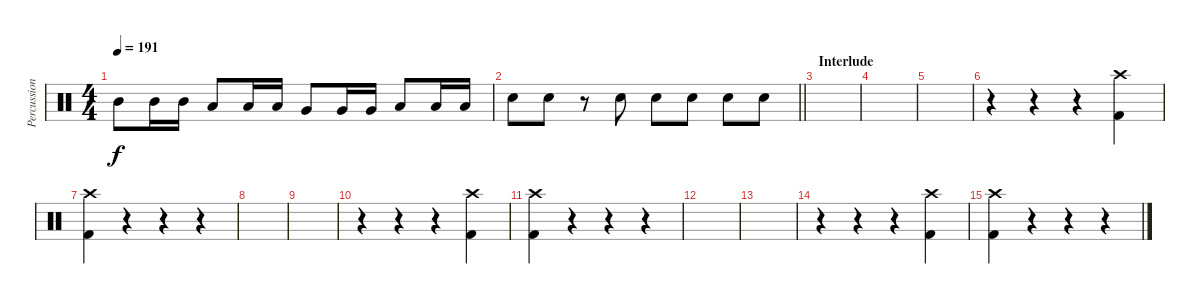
\track ("Percussion" "Percussion") {instrument percussion}
\staff {score}
\articulation defaults
\ts (4 4)
\tempo 191
\clef neutral
\ks c "Mid Tom (hit)".8{dy f} "Mid Tom (hit)".16 "Mid Tom (hit)".16 "Low Tom (hit)".8 "Low Tom (hit)".16 "Low Tom (hit)".16 "Very Low Tom (hit)".8 "Very Low Tom (hit)".16 "Very Low Tom (hit)".16 "Low Floor Tom (hit)".8 "Low Floor Tom (hit)".16 "Low Floor Tom (hit)".16
|
\barLineRight lightlight "Snare (hit) 2".8 "Snare (hit) 2".8
r.8 "Snare (hit) 2".8 "Snare (hit) 2".8 "Snare (hit) 2".8 "Snare (hit) 2".8 "Snare (hit) 2".8 |
\section ("" "Interlude")
|
|
|
r.4 r.4 r.4 ("Crash high (hit)" "Kick (hit) 2").4 |
("Crash high (hit)" "Kick (hit) 2").4 r.4 r.4 r.4 |
|
|
r.4 r.4 r.4 ("Crash high (hit)" "Kick (hit) 2").4 |
("Crash high (hit)" "Kick (hit) 2").4 r.4 r.4 r.4 |
|
|
r.4 r.4 r.4 ("Crash high (hit)" "Kick (hit) 2").4 |
("Crash high (hit)" "Kick (hit) 2").4 r.4 r.4 r.4
